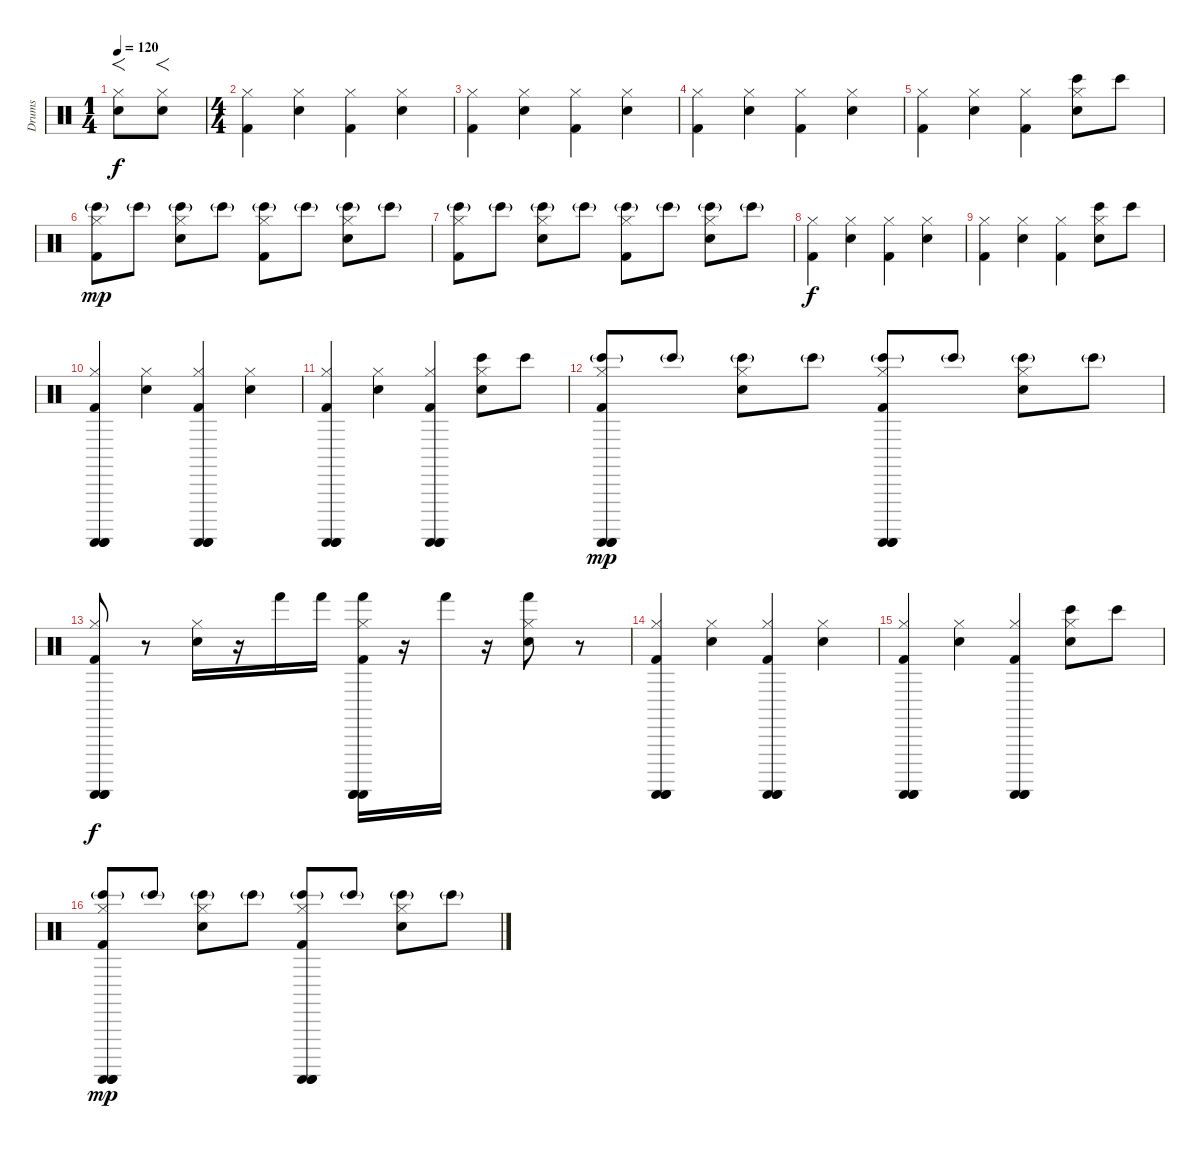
\track ("Drums" "Drums") {instrument percussion}
\staff {score}
\articulation defaults
\ts (1 4)
\tempo 120
\clef neutral
\ks c
("Snare (hit) 2" "Hi-Hat (closed)").8{f dy f} ("Snare (hit) 2" "Hi-Hat (closed)").8{f} |
\ts (4 4)
("Kick (hit) 2" "Hi-Hat (closed)").4 ("Snare (hit) 2" "Hi-Hat (closed)").4 ("Kick (hit) 2" "Hi-Hat (closed)").4 ("Snare (hit) 2" "Hi-Hat (closed)").4 |
("Kick (hit) 2" "Hi-Hat (closed)").4 ("Snare (hit) 2" "Hi-Hat (closed)").4 ("Kick (hit) 2" "Hi-Hat (closed)").4 ("Snare (hit) 2" "Hi-Hat (closed)").4 |
("Kick (hit) 2" "Hi-Hat (closed)").4 ("Snare (hit) 2" "Hi-Hat (closed)").4 ("Kick (hit) 2" "Hi-Hat (closed)").4 ("Snare (hit) 2" "Hi-Hat (closed)").4 |
("Kick (hit) 2" "Hi-Hat (closed)").4 ("Snare (hit) 2" "Hi-Hat (closed)").4 ("Kick (hit) 2" "Hi-Hat (closed)").4 ("Snare (hit) 2" "Hi-Hat (closed)" "Bongo High (hit)").8 "Bongo High (hit)".8 |
("Kick (hit) 2" "Hi-Hat (closed)" "Bongo High (hit)"{g}).8{dy mp} "Bongo High (hit)"{g}.8 ("Snare (hit) 2" "Hi-Hat (closed)" "Bongo High (hit)"{g}).8 "Bongo High (hit)"{g}.8 ("Kick (hit) 2" "Hi-Hat (closed)" "Bongo High (hit)"{g}).8 "Bongo High (hit)"{g}.8 ("Snare (hit) 2" "Hi-Hat (closed)" "Bongo High (hit)"{g}).8 "Bongo High (hit)"{g}.8 |
("Kick (hit) 2" "Hi-Hat (closed)" "Bongo High (hit)"{g}).8 "Bongo High (hit)"{g}.8 ("Snare (hit) 2" "Hi-Hat (closed)" "Bongo High (hit)"{g}).8 "Bongo High (hit)"{g}.8 ("Kick (hit) 2" "Hi-Hat (closed)" "Bongo High (hit)"{g}).8 "Bongo High (hit)"{g}.8 ("Snare (hit) 2" "Hi-Hat (closed)" "Bongo High (hit)"{g}).8 "Bongo High (hit)"{g}.8 |
("Kick (hit) 2" "Hi-Hat (closed)").4{dy f} ("Snare (hit) 2" "Hi-Hat (closed)").4 ("Kick (hit) 2" "Hi-Hat (closed)").4 ("Snare (hit) 2" "Hi-Hat (closed)").4 |
("Kick (hit) 2" "Hi-Hat (closed)").4 ("Snare (hit) 2" "Hi-Hat (closed)").4 ("Kick (hit) 2" "Hi-Hat (closed)").4 ("Snare (hit) 2" "Hi-Hat (closed)" "Bongo High (hit)").8 "Bongo High (hit)".8 |
("Kick (hit) 2" "Hi-Hat (closed)" "Guiro (scrap-return)" "Guiro (scrap-return)" "Guiro (scrap-return)").4 ("Snare (hit) 2" "Hi-Hat (closed)").4 ("Kick (hit) 2" "Hi-Hat (closed)" "Guiro (scrap-return)" "Guiro (scrap-return)" "Guiro (scrap-return)").4 ("Snare (hit) 2" "Hi-Hat (closed)").4 |
("Kick (hit) 2" "Hi-Hat (closed)" "Guiro (scrap-return)" "Guiro (scrap-return)" "Guiro (scrap-return)").4 ("Snare (hit) 2" "Hi-Hat (closed)").4 ("Kick (hit) 2" "Hi-Hat (closed)" "Guiro (scrap-return)" "Guiro (scrap-return)" "Guiro (scrap-return)").4 ("Snare (hit) 2" "Hi-Hat (closed)" "Bongo High (hit)").8 "Bongo High (hit)".8 |
("Kick (hit) 2" "Hi-Hat (closed)" "Guiro (scrap-return)" "Guiro (scrap-return)" "Bongo High (hit)"{g} "Guiro (scrap-return)").8{dy mp} "Bongo High (hit)"{g}.8 ("Snare (hit) 2" "Hi-Hat (closed)" "Bongo High (hit)"{g}).8 "Bongo High (hit)"{g}.8 ("Kick (hit) 2" "Hi-Hat (closed)" "Guiro (scrap-return)" "Guiro (scrap-return)" "Bongo High (hit)"{g} "Guiro (scrap-return)").8 "Bongo High (hit)"{g}.8 ("Snare (hit) 2" "Hi-Hat (closed)" "Bongo High (hit)"{g}).8 "Bongo High (hit)"{g}.8 |
("Kick (hit) 2" "Hi-Hat (closed)" "Guiro (scrap-return)" "Guiro (scrap-return)" "Guiro (scrap-return)").8{dy f} r.8 ("Snare (hit) 2" "Hi-Hat (closed)").16 r.16 "Hand (hit)".16 "Hand (hit)".16 ("Kick (hit) 2" "Hi-Hat (closed)" "Hand (hit)" "Guiro (scrap-return)" "Guiro (scrap-return)" "Guiro (scrap-return)").16 r.16 "Hand (hit)".16 r.16 ("Snare (hit) 2" "Hi-Hat (closed)" "Hand (hit)").8 r.8 |
("Kick (hit) 2" "Hi-Hat (closed)" "Guiro (scrap-return)" "Guiro (scrap-return)" "Guiro (scrap-return)").4 ("Snare (hit) 2" "Hi-Hat (closed)").4 ("Kick (hit) 2" "Hi-Hat (closed)" "Guiro (scrap-return)" "Guiro (scrap-return)" "Guiro (scrap-return)").4 ("Snare (hit) 2" "Hi-Hat (closed)").4 |
("Kick (hit) 2" "Hi-Hat (closed)" "Guiro (scrap-return)" "Guiro (scrap-return)" "Guiro (scrap-return)").4 ("Snare (hit) 2" "Hi-Hat (closed)").4 ("Kick (hit) 2" "Hi-Hat (closed)" "Guiro (scrap-return)" "Guiro (scrap-return)" "Guiro (scrap-return)").4 ("Snare (hit) 2" "Hi-Hat (closed)" "Bongo High (hit)").8 "Bongo High (hit)".8 |
("Kick (hit) 2" "Hi-Hat (closed)" "Guiro (scrap-return)" "Guiro (scrap-return)" "Bongo High (hit)"{g} "Guiro (scrap-return)").8{dy mp} "Bongo High (hit)"{g}.8 ("Snare (hit) 2" "Hi-Hat (closed)" "Bongo High (hit)"{g}).8 "Bongo High (hit)"{g}.8 ("Kick (hit) 2" "Hi-Hat (closed)" "Guiro (scrap-return)" "Guiro (scrap-return)" "Bongo High (hit)"{g} "Guiro (scrap-return)").8 "Bongo High (hit)"{g}.8 ("Snare (hit) 2" "Hi-Hat (closed)" "Bongo High (hit)"{g}).8 "Bongo High (hit)"{g}.8
